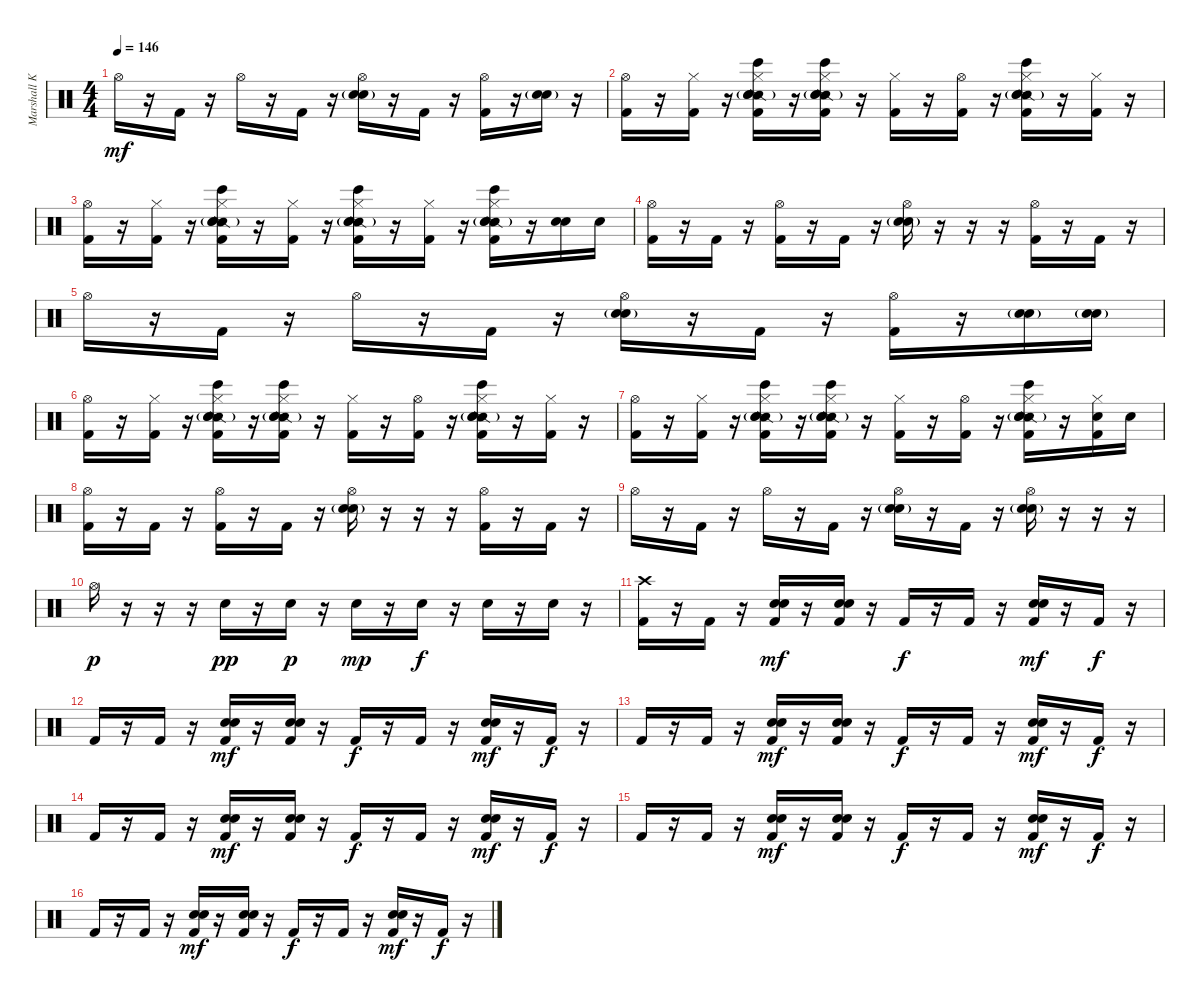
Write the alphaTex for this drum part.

\track ("Marshall Kilpatric" "Marshall K") {instrument percussion}
\staff {score}
\articulation defaults
\ts (4 4)
\tempo 146
\clef neutral
\ks c "Hi-Hat (open)".16{dy mf}
r.16 "Kick (hit) 2".16 r.16 "Hi-Hat (open)".16 r.16 "Kick (hit) 2".16 r.16 ("Hi-Hat (open)" "Snare (hit) 2"{g} "Electric Snare (hit)").16 r.16 "Kick (hit) 2".16 r.16 ("Hi-Hat (open)" "Kick (hit) 2").16 r.16 ("Snare (hit) 2"{g} "Electric Snare (hit)").16 r.16 |
("Hi-Hat (open)" "Kick (hit) 2").16 r.16 ("Hi-Hat (closed)" "Kick (hit) 2").16 r.16 ("Snare (side stick) 2" "Snare (hit) 2"{g} "Bongo High (hit)" "Electric Snare (hit)" "Hi-Hat (closed)" "Kick (hit) 2").16 r.16 ("Snare (side stick) 2" "Snare (hit) 2"{g} "Bongo High (hit)" "Electric Snare (hit)" "Hi-Hat (closed)" "Kick (hit) 2").16 r.16 ("Hi-Hat (closed)" "Kick (hit) 2").16 r.16 ("Hi-Hat (open)" "Kick (hit) 2").16 r.16 ("Snare (side stick) 2" "Snare (hit) 2"{g} "Bongo High (hit)" "Electric Snare (hit)" "Hi-Hat (closed)" "Kick (hit) 2").16 r.16 ("Hi-Hat (closed)" "Kick (hit) 2").16 r.16 |
("Hi-Hat (open)" "Kick (hit) 2").16 r.16 ("Hi-Hat (closed)" "Kick (hit) 2").16 r.16 ("Snare (side stick) 2" "Snare (hit) 2"{g} "Bongo High (hit)" "Electric Snare (hit)" "Hi-Hat (closed)" "Kick (hit) 2").16 r.16 ("Hi-Hat (closed)" "Kick (hit) 2").16 r.16 ("Snare (side stick) 2" "Snare (hit) 2"{g} "Bongo High (hit)" "Electric Snare (hit)" "Hi-Hat (closed)" "Kick (hit) 2").16 r.16 ("Hi-Hat (closed)" "Kick (hit) 2").16 r.16 ("Snare (side stick) 2" "Snare (hit) 2"{g} "Bongo High (hit)" "Electric Snare (hit)" "Hi-Hat (closed)" "Kick (hit) 2").16 r.16 ("Snare (hit) 2" "Electric Snare (hit)").16 "Electric Snare (hit)".16 |
("Hi-Hat (open)" "Kick (hit) 2").16 r.16 "Kick (hit) 2".16 r.16 ("Hi-Hat (open)" "Kick (hit) 2").16 r.16 "Kick (hit) 2".16 r.16 ("Hi-Hat (open)" "Snare (hit) 2"{g} "Electric Snare (hit)").16 r.16 r.16 r.16 ("Hi-Hat (open)" "Kick (hit) 2").16 r.16 "Kick (hit) 2".16 r.16 |
"Hi-Hat (open)".16 r.16 "Kick (hit) 2".16 r.16 "Hi-Hat (open)".16 r.16 "Kick (hit) 2".16 r.16 ("Hi-Hat (open)" "Snare (hit) 2"{g} "Electric Snare (hit)").16 r.16 "Kick (hit) 2".16 r.16 ("Hi-Hat (open)" "Kick (hit) 2").16 r.16 ("Snare (hit) 2"{g} "Electric Snare (hit)").16 ("Snare (hit) 2"{g} "Electric Snare (hit)").16 |
("Hi-Hat (open)" "Kick (hit) 2").16 r.16 ("Hi-Hat (closed)" "Kick (hit) 2").16 r.16 ("Snare (side stick) 2" "Snare (hit) 2"{g} "Bongo High (hit)" "Electric Snare (hit)" "Hi-Hat (closed)" "Kick (hit) 2").16 r.16 ("Snare (side stick) 2" "Snare (hit) 2"{g} "Bongo High (hit)" "Electric Snare (hit)" "Hi-Hat (closed)" "Kick (hit) 2").16 r.16 ("Hi-Hat (closed)" "Kick (hit) 2").16 r.16 ("Hi-Hat (open)" "Kick (hit) 2").16 r.16 ("Snare (side stick) 2" "Snare (hit) 2"{g} "Bongo High (hit)" "Electric Snare (hit)" "Hi-Hat (closed)" "Kick (hit) 2").16 r.16 ("Hi-Hat (closed)" "Kick (hit) 2").16 r.16 |
("Hi-Hat (open)" "Kick (hit) 2").16 r.16 ("Hi-Hat (closed)" "Kick (hit) 2").16 r.16 ("Snare (side stick) 2" "Snare (hit) 2"{g} "Bongo High (hit)" "Electric Snare (hit)" "Hi-Hat (closed)" "Kick (hit) 2").16 r.16 ("Snare (side stick) 2" "Snare (hit) 2"{g} "Bongo High (hit)" "Electric Snare (hit)" "Hi-Hat (closed)" "Kick (hit) 2").16 r.16 ("Hi-Hat (closed)" "Kick (hit) 2").16 r.16 ("Hi-Hat (open)" "Kick (hit) 2").16 r.16 ("Snare (side stick) 2" "Snare (hit) 2"{g} "Bongo High (hit)" "Electric Snare (hit)" "Hi-Hat (closed)" "Kick (hit) 2").16 r.16 ("Electric Snare (hit)" "Hi-Hat (closed)" "Kick (hit) 2").16 "Electric Snare (hit)".16 |
("Hi-Hat (open)" "Kick (hit) 2").16 r.16 "Kick (hit) 2".16 r.16 ("Hi-Hat (open)" "Kick (hit) 2").16 r.16 "Kick (hit) 2".16 r.16 ("Hi-Hat (open)" "Snare (hit) 2"{g} "Electric Snare (hit)").16 r.16 r.16 r.16 ("Hi-Hat (open)" "Kick (hit) 2").16 r.16 "Kick (hit) 2".16 r.16 |
"Hi-Hat (open)".16 r.16 "Kick (hit) 2".16 r.16 "Hi-Hat (open)".16 r.16 "Kick (hit) 2".16 r.16 ("Hi-Hat (open)" "Snare (hit) 2"{g} "Electric Snare (hit)").16 r.16 "Kick (hit) 2".16 r.16 ("Hi-Hat (open)" "Snare (hit) 2"{g} "Electric Snare (hit)").16 r.16 r.16 r.16 |
"Hi-Hat (open)".16{dy p} r.16 r.16 r.16 "Hand Clap (hit)".16{dy pp} r.16 "Hand Clap (hit)".16{dy p} r.16 "Hand Clap (hit)".16{dy mp} r.16 "Hand Clap (hit)".16{dy f} r.16 "Hand Clap (hit)".16 r.16 "Hand Clap (hit)".16 r.16 |
("Crash high (hit)" "Kick (hit) 2").16 r.16 "Kick (hit) 2".16 r.16 ("Hand Clap (hit)" "Electric Snare (hit)" "Kick (hit) 2").16{dy mf} r.16 ("Hand Clap (hit)" "Electric Snare (hit)" "Kick (hit) 2").16 r.16 "Kick (hit) 2".16{dy f} r.16 "Kick (hit) 2".16 r.16 ("Hand Clap (hit)" "Electric Snare (hit)" "Kick (hit) 2").16{dy mf} r.16 "Kick (hit) 2".16{dy f} r.16 |
"Kick (hit) 2".16 r.16 "Kick (hit) 2".16 r.16 ("Hand Clap (hit)" "Electric Snare (hit)" "Kick (hit) 2").16{dy mf} r.16 ("Hand Clap (hit)" "Electric Snare (hit)" "Kick (hit) 2").16 r.16 "Kick (hit) 2".16{dy f} r.16 "Kick (hit) 2".16 r.16 ("Hand Clap (hit)" "Electric Snare (hit)" "Kick (hit) 2").16{dy mf} r.16 "Kick (hit) 2".16{dy f} r.16 |
"Kick (hit) 2".16 r.16 "Kick (hit) 2".16 r.16 ("Hand Clap (hit)" "Electric Snare (hit)" "Kick (hit) 2").16{dy mf} r.16 ("Hand Clap (hit)" "Electric Snare (hit)" "Kick (hit) 2").16 r.16 "Kick (hit) 2".16{dy f} r.16 "Kick (hit) 2".16 r.16 ("Hand Clap (hit)" "Electric Snare (hit)" "Kick (hit) 2").16{dy mf} r.16 "Kick (hit) 2".16{dy f} r.16 |
"Kick (hit) 2".16 r.16 "Kick (hit) 2".16 r.16 ("Hand Clap (hit)" "Electric Snare (hit)" "Kick (hit) 2").16{dy mf} r.16 ("Hand Clap (hit)" "Electric Snare (hit)" "Kick (hit) 2").16 r.16 "Kick (hit) 2".16{dy f} r.16 "Kick (hit) 2".16 r.16 ("Hand Clap (hit)" "Electric Snare (hit)" "Kick (hit) 2").16{dy mf} r.16 "Kick (hit) 2".16{dy f} r.16 |
"Kick (hit) 2".16 r.16 "Kick (hit) 2".16 r.16 ("Hand Clap (hit)" "Electric Snare (hit)" "Kick (hit) 2").16{dy mf} r.16 ("Hand Clap (hit)" "Electric Snare (hit)" "Kick (hit) 2").16 r.16 "Kick (hit) 2".16{dy f} r.16 "Kick (hit) 2".16 r.16 ("Hand Clap (hit)" "Electric Snare (hit)" "Kick (hit) 2").16{dy mf} r.16 "Kick (hit) 2".16{dy f} r.16 |
"Kick (hit) 2".16 r.16 "Kick (hit) 2".16 r.16 ("Hand Clap (hit)" "Electric Snare (hit)" "Kick (hit) 2").16{dy mf} r.16 ("Hand Clap (hit)" "Electric Snare (hit)" "Kick (hit) 2").16 r.16 "Kick (hit) 2".16{dy f} r.16 "Kick (hit) 2".16 r.16 ("Hand Clap (hit)" "Electric Snare (hit)" "Kick (hit) 2").16{dy mf} r.16 "Kick (hit) 2".16{dy f} r.16
